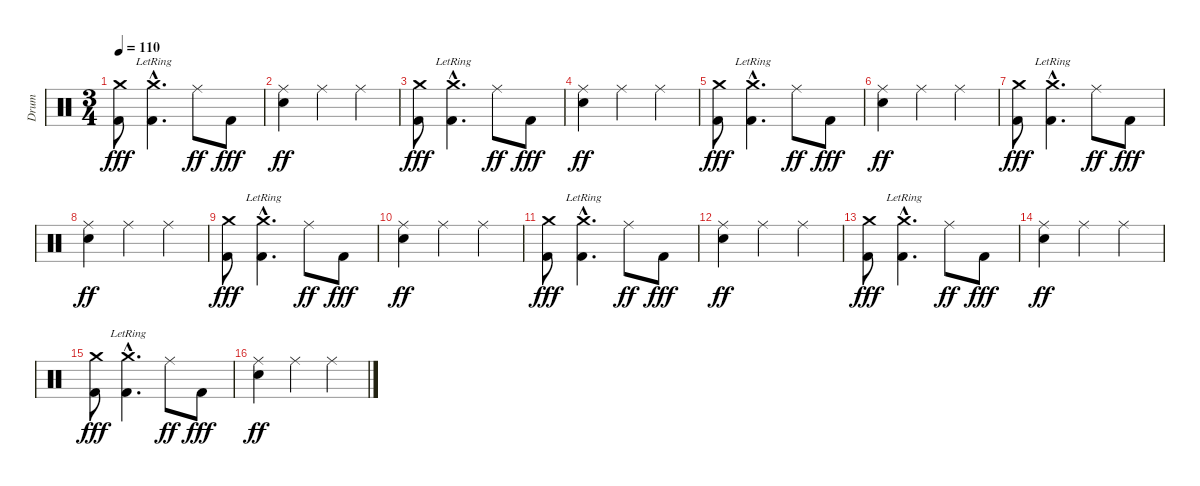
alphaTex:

\track ("Drum" "Drum") {instrument percussion}
\staff {score}
\articulation defaults
\ts (3 4)
\tempo 110
\clef neutral
\ks c
("Crash medium (hit)" "Kick (hit) 2").8{dy fff} ("Crash medium (hit)"{hac lr} "Kick (hit) 2"{hac}).4{d} "Ride (middle)".8{dy ff} "Kick (hit) 2".8{dy fff} |
("Ride (middle)" "Snare (hit) 2").4{dy ff} "Ride (middle)".4 "Ride (middle)".4 |
("Crash medium (hit)" "Kick (hit) 2").8{dy fff} ("Crash medium (hit)"{hac lr} "Kick (hit) 2"{hac}).4{d} "Ride (middle)".8{dy ff} "Kick (hit) 2".8{dy fff} |
("Ride (middle)" "Snare (hit) 2").4{dy ff} "Ride (middle)".4 "Ride (middle)".4 |
("Crash medium (hit)" "Kick (hit) 2").8{dy fff} ("Crash medium (hit)"{hac lr} "Kick (hit) 2"{hac}).4{d} "Ride (middle)".8{dy ff} "Kick (hit) 2".8{dy fff} |
("Ride (middle)" "Snare (hit) 2").4{dy ff} "Ride (middle)".4 "Ride (middle)".4 |
("Crash medium (hit)" "Kick (hit) 2").8{dy fff} ("Crash medium (hit)"{hac lr} "Kick (hit) 2"{hac}).4{d} "Ride (middle)".8{dy ff} "Kick (hit) 2".8{dy fff} |
("Ride (middle)" "Snare (hit) 2").4{dy ff} "Ride (middle)".4 "Ride (middle)".4 |
("Crash medium (hit)" "Kick (hit) 2").8{dy fff} ("Crash medium (hit)"{hac lr} "Kick (hit) 2"{hac}).4{d} "Ride (middle)".8{dy ff} "Kick (hit) 2".8{dy fff} |
("Ride (middle)" "Snare (hit) 2").4{dy ff} "Ride (middle)".4 "Ride (middle)".4 |
("Crash medium (hit)" "Kick (hit) 2").8{dy fff} ("Crash medium (hit)"{hac lr} "Kick (hit) 2"{hac}).4{d} "Ride (middle)".8{dy ff} "Kick (hit) 2".8{dy fff} |
("Ride (middle)" "Snare (hit) 2").4{dy ff} "Ride (middle)".4 "Ride (middle)".4 |
("Crash medium (hit)" "Kick (hit) 2").8{dy fff} ("Crash medium (hit)"{hac lr} "Kick (hit) 2"{hac}).4{d} "Ride (middle)".8{dy ff} "Kick (hit) 2".8{dy fff} |
("Ride (middle)" "Snare (hit) 2").4{dy ff} "Ride (middle)".4 "Ride (middle)".4 |
("Crash medium (hit)" "Kick (hit) 2").8{dy fff} ("Crash medium (hit)"{hac lr} "Kick (hit) 2"{hac}).4{d} "Ride (middle)".8{dy ff} "Kick (hit) 2".8{dy fff} |
("Ride (middle)" "Snare (hit) 2").4{dy ff} "Ride (middle)".4 "Ride (middle)".4
